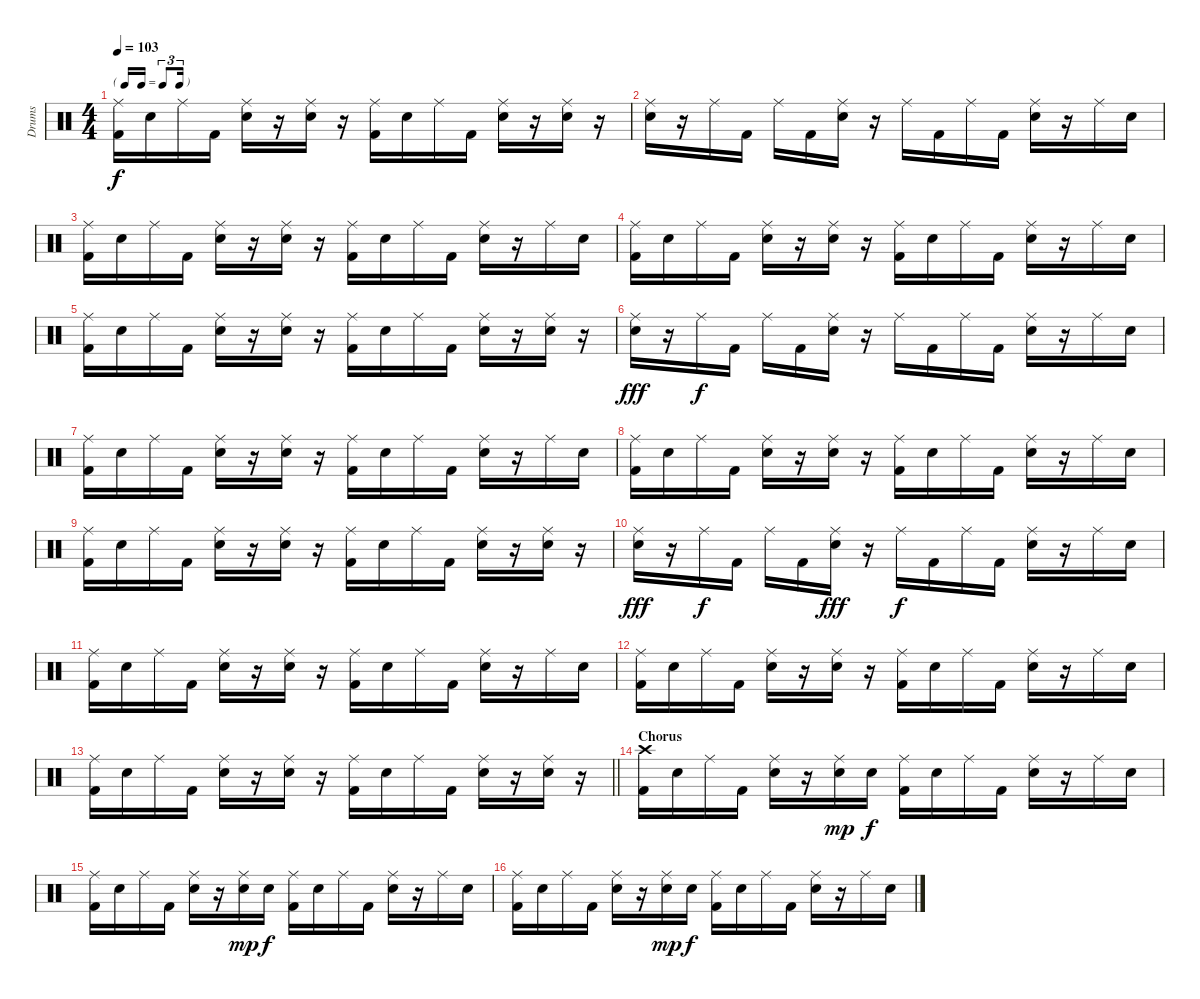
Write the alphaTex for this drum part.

\track ("Drums" "Drums") {instrument percussion}
\staff {score}
\articulation defaults
\ts (4 4)
\tf triplet16th
\tempo 103
\clef neutral
\ks c
("Ride (middle)" "Kick (hit) 2").16{dy f} "Electric Snare (hit)".16 "Ride (middle)".16 "Kick (hit) 2".16 ("Ride (middle)" "Electric Snare (hit)").16 r.16 ("Ride (middle)" "Electric Snare (hit)").16 r.16 ("Ride (middle)" "Kick (hit) 2").16 "Electric Snare (hit)".16 "Ride (middle)".16 "Kick (hit) 2".16 ("Ride (middle)" "Electric Snare (hit)").16 r.16 ("Ride (middle)" "Electric Snare (hit)").16 r.16 |
("Ride (middle)" "Electric Snare (hit)").16 r.16 "Ride (middle)".16 "Kick (hit) 2".16 "Ride (middle)".16 "Kick (hit) 2".16 ("Ride (middle)" "Electric Snare (hit)").16 r.16 "Ride (middle)".16 "Kick (hit) 2".16 "Ride (middle)".16 "Kick (hit) 2".16 ("Ride (middle)" "Electric Snare (hit)").16 r.16 "Ride (middle)".16 "Electric Snare (hit)".16 |
("Ride (middle)" "Kick (hit) 2").16 "Electric Snare (hit)".16 "Ride (middle)".16 "Kick (hit) 2".16 ("Ride (middle)" "Electric Snare (hit)").16 r.16 ("Ride (middle)" "Electric Snare (hit)").16 r.16 ("Ride (middle)" "Kick (hit) 2").16 "Electric Snare (hit)".16 "Ride (middle)".16 "Kick (hit) 2".16 ("Ride (middle)" "Electric Snare (hit)").16 r.16 "Ride (middle)".16 "Electric Snare (hit)".16 |
("Ride (middle)" "Kick (hit) 2").16 "Electric Snare (hit)".16 "Ride (middle)".16 "Kick (hit) 2".16 ("Ride (middle)" "Electric Snare (hit)").16 r.16 ("Ride (middle)" "Electric Snare (hit)").16 r.16 ("Ride (middle)" "Kick (hit) 2").16 "Electric Snare (hit)".16 "Ride (middle)".16 "Kick (hit) 2".16 ("Ride (middle)" "Electric Snare (hit)").16 r.16 "Ride (middle)".16 "Electric Snare (hit)".16 |
("Ride (middle)" "Kick (hit) 2").16 "Electric Snare (hit)".16 "Ride (middle)".16 "Kick (hit) 2".16 ("Ride (middle)" "Electric Snare (hit)").16 r.16 ("Ride (middle)" "Electric Snare (hit)").16 r.16 ("Ride (middle)" "Kick (hit) 2").16 "Electric Snare (hit)".16 "Ride (middle)".16 "Kick (hit) 2".16 ("Ride (middle)" "Electric Snare (hit)").16 r.16 ("Ride (middle)" "Electric Snare (hit)").16 r.16 |
("Ride (middle)" "Electric Snare (hit)").16{dy fff} r.16 "Ride (middle)".16{dy f} "Kick (hit) 2".16 "Ride (middle)".16 "Kick (hit) 2".16 ("Ride (middle)" "Electric Snare (hit)").16 r.16 "Ride (middle)".16 "Kick (hit) 2".16 "Ride (middle)".16 "Kick (hit) 2".16 ("Ride (middle)" "Electric Snare (hit)").16 r.16 "Ride (middle)".16 "Electric Snare (hit)".16 |
("Ride (middle)" "Kick (hit) 2").16 "Electric Snare (hit)".16 "Ride (middle)".16 "Kick (hit) 2".16 ("Ride (middle)" "Electric Snare (hit)").16 r.16 ("Ride (middle)" "Electric Snare (hit)").16 r.16 ("Ride (middle)" "Kick (hit) 2").16 "Electric Snare (hit)".16 "Ride (middle)".16 "Kick (hit) 2".16 ("Ride (middle)" "Electric Snare (hit)").16 r.16 "Ride (middle)".16 "Electric Snare (hit)".16 |
("Ride (middle)" "Kick (hit) 2").16 "Electric Snare (hit)".16 "Ride (middle)".16 "Kick (hit) 2".16 ("Ride (middle)" "Electric Snare (hit)").16 r.16 ("Ride (middle)" "Electric Snare (hit)").16 r.16 ("Ride (middle)" "Kick (hit) 2").16 "Electric Snare (hit)".16 "Ride (middle)".16 "Kick (hit) 2".16 ("Ride (middle)" "Electric Snare (hit)").16 r.16 "Ride (middle)".16 "Electric Snare (hit)".16 |
("Ride (middle)" "Kick (hit) 2").16 "Electric Snare (hit)".16 "Ride (middle)".16 "Kick (hit) 2".16 ("Ride (middle)" "Electric Snare (hit)").16 r.16 ("Ride (middle)" "Electric Snare (hit)").16 r.16 ("Ride (middle)" "Kick (hit) 2").16 "Electric Snare (hit)".16 "Ride (middle)".16 "Kick (hit) 2".16 ("Ride (middle)" "Electric Snare (hit)").16 r.16 ("Ride (middle)" "Electric Snare (hit)").16 r.16 |
("Ride (middle)" "Electric Snare (hit)").16{dy fff} r.16 "Ride (middle)".16{dy f} "Kick (hit) 2".16 "Ride (middle)".16 "Kick (hit) 2".16 ("Ride (middle)" "Electric Snare (hit)").16{dy fff} r.16 "Ride (middle)".16{dy f} "Kick (hit) 2".16 "Ride (middle)".16 "Kick (hit) 2".16 ("Ride (middle)" "Electric Snare (hit)").16 r.16 "Ride (middle)".16 "Electric Snare (hit)".16 |
("Ride (middle)" "Kick (hit) 2").16 "Electric Snare (hit)".16 "Ride (middle)".16 "Kick (hit) 2".16 ("Ride (middle)" "Electric Snare (hit)").16 r.16 ("Ride (middle)" "Electric Snare (hit)").16 r.16 ("Ride (middle)" "Kick (hit) 2").16 "Electric Snare (hit)".16 "Ride (middle)".16 "Kick (hit) 2".16 ("Ride (middle)" "Electric Snare (hit)").16 r.16 "Ride (middle)".16 "Electric Snare (hit)".16 |
("Ride (middle)" "Kick (hit) 2").16 "Electric Snare (hit)".16 "Ride (middle)".16 "Kick (hit) 2".16 ("Ride (middle)" "Electric Snare (hit)").16 r.16 ("Ride (middle)" "Electric Snare (hit)").16 r.16 ("Ride (middle)" "Kick (hit) 2").16 "Electric Snare (hit)".16 "Ride (middle)".16 "Kick (hit) 2".16 ("Ride (middle)" "Electric Snare (hit)").16 r.16 "Ride (middle)".16 "Electric Snare (hit)".16 |
\barLineRight lightlight
("Ride (middle)" "Kick (hit) 2").16 "Electric Snare (hit)".16 "Ride (middle)".16 "Kick (hit) 2".16 ("Ride (middle)" "Electric Snare (hit)").16 r.16 ("Ride (middle)" "Electric Snare (hit)").16 r.16 ("Ride (middle)" "Kick (hit) 2").16 "Electric Snare (hit)".16 "Ride (middle)".16 "Kick (hit) 2".16 ("Ride (middle)" "Electric Snare (hit)").16 r.16 ("Ride (middle)" "Electric Snare (hit)").16 r.16 |
\section ("" "Chorus")
("Crash high (hit)" "Kick (hit) 2").16 "Electric Snare (hit)".16 "Ride (middle)".16 "Kick (hit) 2".16 ("Ride (middle)" "Electric Snare (hit)").16 r.16 ("Ride (middle)" "Electric Snare (hit)").16{dy mp} "Electric Snare (hit)".16{dy f} ("Ride (middle)" "Kick (hit) 2").16 "Electric Snare (hit)".16 "Ride (middle)".16 "Kick (hit) 2".16 ("Ride (middle)" "Electric Snare (hit)").16 r.16 "Ride (middle)".16 "Electric Snare (hit)".16 |
("Ride (middle)" "Kick (hit) 2").16 "Electric Snare (hit)".16 "Ride (middle)".16 "Kick (hit) 2".16 ("Ride (middle)" "Electric Snare (hit)").16 r.16 ("Ride (middle)" "Electric Snare (hit)").16{dy mp} "Electric Snare (hit)".16{dy f} ("Ride (middle)" "Kick (hit) 2").16 "Electric Snare (hit)".16 "Ride (middle)".16 "Kick (hit) 2".16 ("Ride (middle)" "Electric Snare (hit)").16 r.16 "Ride (middle)".16 "Electric Snare (hit)".16 |
("Ride (middle)" "Kick (hit) 2").16 "Electric Snare (hit)".16 "Ride (middle)".16 "Kick (hit) 2".16 ("Ride (middle)" "Electric Snare (hit)").16 r.16 ("Ride (middle)" "Electric Snare (hit)").16{dy mp} "Electric Snare (hit)".16{dy f} ("Ride (middle)" "Kick (hit) 2").16 "Electric Snare (hit)".16 "Ride (middle)".16 "Kick (hit) 2".16 ("Ride (middle)" "Electric Snare (hit)").16 r.16 "Ride (middle)".16 "Electric Snare (hit)".16
